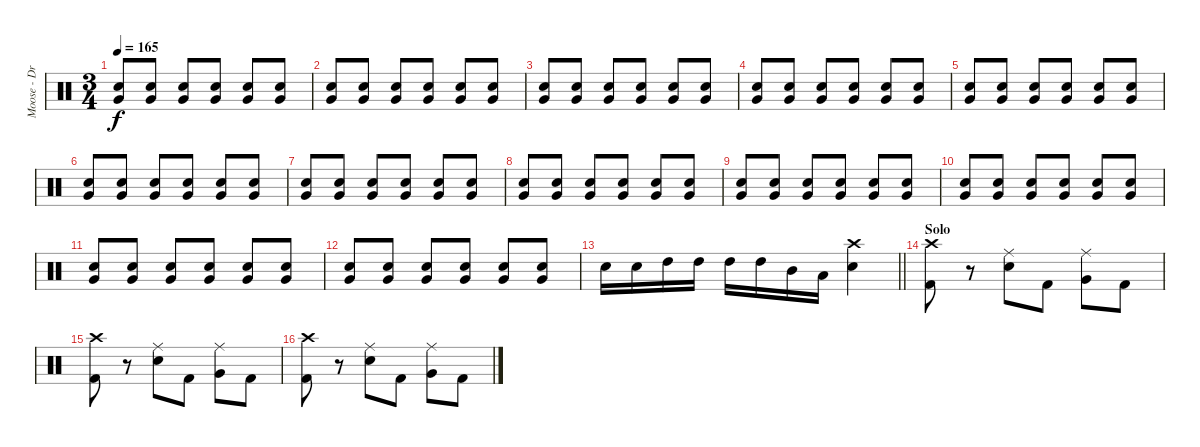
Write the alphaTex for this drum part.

\track ("Moose - Drums" "Moose - Dr") {instrument percussion}
\staff {score}
\articulation defaults
\ts (3 4)
\tempo 165
\clef neutral
\ks c
("Electric Snare (hit)" "Very Low Tom (hit)").8{dy f} ("Electric Snare (hit)" "Very Low Tom (hit)").8 ("Electric Snare (hit)" "Very Low Tom (hit)").8 ("Electric Snare (hit)" "Very Low Tom (hit)").8 ("Electric Snare (hit)" "Very Low Tom (hit)").8 ("Electric Snare (hit)" "Very Low Tom (hit)").8 |
("Electric Snare (hit)" "Very Low Tom (hit)").8{volume 9} ("Electric Snare (hit)" "Very Low Tom (hit)").8 ("Electric Snare (hit)" "Very Low Tom (hit)").8 ("Electric Snare (hit)" "Very Low Tom (hit)").8 ("Electric Snare (hit)" "Very Low Tom (hit)").8 ("Electric Snare (hit)" "Very Low Tom (hit)").8 |
("Electric Snare (hit)" "Very Low Tom (hit)").8 ("Electric Snare (hit)" "Very Low Tom (hit)").8 ("Electric Snare (hit)" "Very Low Tom (hit)").8 ("Electric Snare (hit)" "Very Low Tom (hit)").8 ("Electric Snare (hit)" "Very Low Tom (hit)").8 ("Electric Snare (hit)" "Very Low Tom (hit)").8 |
("Electric Snare (hit)" "Very Low Tom (hit)").8 ("Electric Snare (hit)" "Very Low Tom (hit)").8 ("Electric Snare (hit)" "Very Low Tom (hit)").8 ("Electric Snare (hit)" "Very Low Tom (hit)").8 ("Electric Snare (hit)" "Very Low Tom (hit)").8 ("Electric Snare (hit)" "Very Low Tom (hit)").8 |
("Electric Snare (hit)" "Very Low Tom (hit)").8 ("Electric Snare (hit)" "Very Low Tom (hit)").8 ("Electric Snare (hit)" "Very Low Tom (hit)").8 ("Electric Snare (hit)" "Very Low Tom (hit)").8 ("Electric Snare (hit)" "Very Low Tom (hit)").8 ("Electric Snare (hit)" "Very Low Tom (hit)").8 |
("Electric Snare (hit)" "Very Low Tom (hit)").8{volume 12} ("Electric Snare (hit)" "Very Low Tom (hit)").8 ("Electric Snare (hit)" "Very Low Tom (hit)").8 ("Electric Snare (hit)" "Very Low Tom (hit)").8 ("Electric Snare (hit)" "Very Low Tom (hit)").8 ("Electric Snare (hit)" "Very Low Tom (hit)").8 |
("Electric Snare (hit)" "Very Low Tom (hit)").8{volume 13} ("Electric Snare (hit)" "Very Low Tom (hit)").8 ("Electric Snare (hit)" "Very Low Tom (hit)").8 ("Electric Snare (hit)" "Very Low Tom (hit)").8 ("Electric Snare (hit)" "Very Low Tom (hit)").8 ("Electric Snare (hit)" "Very Low Tom (hit)").8 |
("Electric Snare (hit)" "Very Low Tom (hit)").8 ("Electric Snare (hit)" "Very Low Tom (hit)").8 ("Electric Snare (hit)" "Very Low Tom (hit)").8 ("Electric Snare (hit)" "Very Low Tom (hit)").8 ("Electric Snare (hit)" "Very Low Tom (hit)").8 ("Electric Snare (hit)" "Very Low Tom (hit)").8 |
("Electric Snare (hit)" "Very Low Tom (hit)").8 ("Electric Snare (hit)" "Very Low Tom (hit)").8 ("Electric Snare (hit)" "Very Low Tom (hit)").8 ("Electric Snare (hit)" "Very Low Tom (hit)").8 ("Electric Snare (hit)" "Very Low Tom (hit)").8 ("Electric Snare (hit)" "Very Low Tom (hit)").8 |
("Electric Snare (hit)" "Very Low Tom (hit)").8 ("Electric Snare (hit)" "Very Low Tom (hit)").8 ("Electric Snare (hit)" "Very Low Tom (hit)").8 ("Electric Snare (hit)" "Very Low Tom (hit)").8 ("Electric Snare (hit)" "Very Low Tom (hit)").8 ("Electric Snare (hit)" "Very Low Tom (hit)").8 |
("Electric Snare (hit)" "Very Low Tom (hit)").8 ("Electric Snare (hit)" "Very Low Tom (hit)").8 ("Electric Snare (hit)" "Very Low Tom (hit)").8 ("Electric Snare (hit)" "Very Low Tom (hit)").8 ("Electric Snare (hit)" "Very Low Tom (hit)").8 ("Electric Snare (hit)" "Very Low Tom (hit)").8 |
("Electric Snare (hit)" "Very Low Tom (hit)").8 ("Electric Snare (hit)" "Very Low Tom (hit)").8 ("Electric Snare (hit)" "Very Low Tom (hit)").8 ("Electric Snare (hit)" "Very Low Tom (hit)").8 ("Electric Snare (hit)" "Very Low Tom (hit)").8 ("Electric Snare (hit)" "Very Low Tom (hit)").8 |
\barLineRight lightlight "Electric Snare (hit)".16 "Electric Snare (hit)".16 "High Tom (hit)".16 "High Tom (hit)".16 "High Tom (hit)".16 "High Tom (hit)".16 "Mid Tom (hit)".16 "Low Tom (hit)".16
("Crash high (hit)" "Electric Snare (hit)").4 |
\section ("" "Solo")
("Crash high (hit)" "Kick (hit) 2").8 r.8 ("Ride (middle)" "Electric Snare (hit)").8 "Kick (hit) 2".8 ("Ride (middle)" "Very Low Tom (hit)").8 "Kick (hit) 2".8 |
("Crash high (hit)" "Kick (hit) 2").8 r.8 ("Ride (middle)" "Electric Snare (hit)").8 "Kick (hit) 2".8 ("Ride (middle)" "Very Low Tom (hit)").8 "Kick (hit) 2".8 |
("Crash high (hit)" "Kick (hit) 2").8 r.8 ("Ride (middle)" "Electric Snare (hit)").8 "Kick (hit) 2".8 ("Ride (middle)" "Very Low Tom (hit)").8 "Kick (hit) 2".8
